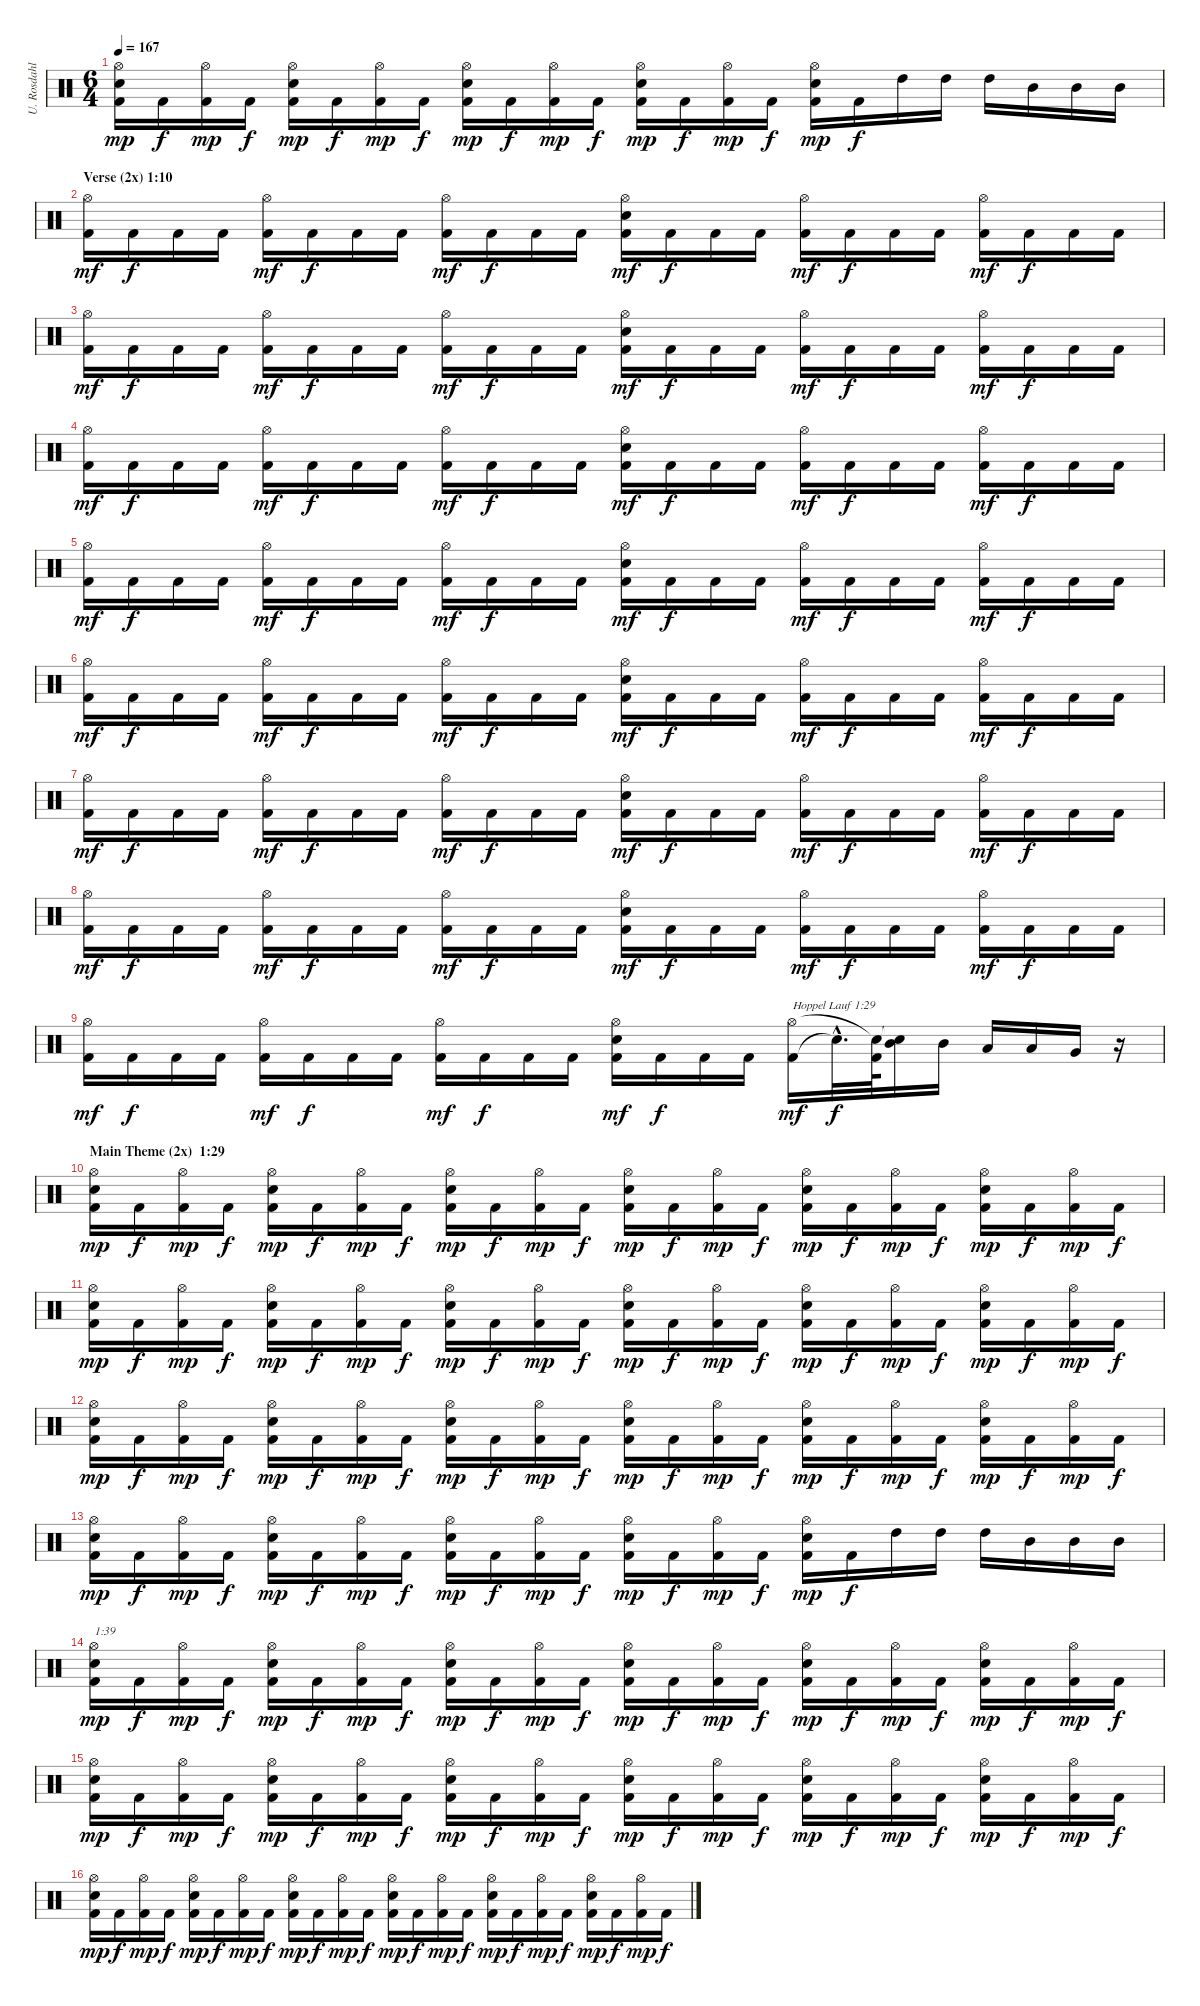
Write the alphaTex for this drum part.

\track ("U. Rosdahl" "U. Rosdahl") {instrument percussion}
\staff {score}
\articulation defaults
\ts (6 4)
\tempo 167
\clef neutral
\ks c
("Kick (hit) 2" "Electric Snare (hit)" "Hi-Hat (open)").16{dy mp} "Kick (hit) 2".16{dy f} ("Kick (hit) 2" "Hi-Hat (open)").16{dy mp} "Kick (hit) 2".16{dy f} ("Kick (hit) 2" "Electric Snare (hit)" "Hi-Hat (open)").16{dy mp} "Kick (hit) 2".16{dy f} ("Kick (hit) 2" "Hi-Hat (open)").16{dy mp} "Kick (hit) 2".16{dy f} ("Kick (hit) 2" "Electric Snare (hit)" "Hi-Hat (open)").16{dy mp} "Kick (hit) 2".16{dy f} ("Kick (hit) 2" "Hi-Hat (open)").16{dy mp} "Kick (hit) 2".16{dy f} ("Kick (hit) 2" "Electric Snare (hit)" "Hi-Hat (open)").16{dy mp} "Kick (hit) 2".16{dy f} ("Kick (hit) 2" "Hi-Hat (open)").16{dy mp} "Kick (hit) 2".16{dy f} ("Kick (hit) 2" "Electric Snare (hit)" "Hi-Hat (open)").16{dy mp} "Kick (hit) 2".16{dy f} "High Tom (hit)".16 "High Tom (hit)".16 "High Tom (hit)".16 "Mid Tom (hit)".16 "Mid Tom (hit)".16 "Mid Tom (hit)".16 |
\section ("" "Verse (2x) 1:10")
("Kick (hit) 2" "Hi-Hat (open)").16{dy mf} "Kick (hit) 2".16{dy f} "Kick (hit) 2".16 "Kick (hit) 2".16 ("Kick (hit) 2" "Hi-Hat (open)").16{dy mf} "Kick (hit) 2".16{dy f} "Kick (hit) 2".16 "Kick (hit) 2".16 ("Kick (hit) 2" "Hi-Hat (open)").16{dy mf} "Kick (hit) 2".16{dy f} "Kick (hit) 2".16 "Kick (hit) 2".16 ("Kick (hit) 2" "Electric Snare (hit)" "Hi-Hat (open)").16{dy mf} "Kick (hit) 2".16{dy f} "Kick (hit) 2".16 "Kick (hit) 2".16 ("Kick (hit) 2" "Hi-Hat (open)").16{dy mf} "Kick (hit) 2".16{dy f} "Kick (hit) 2".16 "Kick (hit) 2".16 ("Kick (hit) 2" "Hi-Hat (open)").16{dy mf} "Kick (hit) 2".16{dy f} "Kick (hit) 2".16 "Kick (hit) 2".16 |
("Kick (hit) 2" "Hi-Hat (open)").16{dy mf} "Kick (hit) 2".16{dy f} "Kick (hit) 2".16 "Kick (hit) 2".16 ("Kick (hit) 2" "Hi-Hat (open)").16{dy mf} "Kick (hit) 2".16{dy f} "Kick (hit) 2".16 "Kick (hit) 2".16 ("Kick (hit) 2" "Hi-Hat (open)").16{dy mf} "Kick (hit) 2".16{dy f} "Kick (hit) 2".16 "Kick (hit) 2".16 ("Kick (hit) 2" "Electric Snare (hit)" "Hi-Hat (open)").16{dy mf} "Kick (hit) 2".16{dy f} "Kick (hit) 2".16 "Kick (hit) 2".16 ("Kick (hit) 2" "Hi-Hat (open)").16{dy mf} "Kick (hit) 2".16{dy f} "Kick (hit) 2".16 "Kick (hit) 2".16 ("Kick (hit) 2" "Hi-Hat (open)").16{dy mf} "Kick (hit) 2".16{dy f} "Kick (hit) 2".16 "Kick (hit) 2".16 |
("Kick (hit) 2" "Hi-Hat (open)").16{dy mf} "Kick (hit) 2".16{dy f} "Kick (hit) 2".16 "Kick (hit) 2".16 ("Kick (hit) 2" "Hi-Hat (open)").16{dy mf} "Kick (hit) 2".16{dy f} "Kick (hit) 2".16 "Kick (hit) 2".16 ("Kick (hit) 2" "Hi-Hat (open)").16{dy mf} "Kick (hit) 2".16{dy f} "Kick (hit) 2".16 "Kick (hit) 2".16 ("Kick (hit) 2" "Electric Snare (hit)" "Hi-Hat (open)").16{dy mf} "Kick (hit) 2".16{dy f} "Kick (hit) 2".16 "Kick (hit) 2".16 ("Kick (hit) 2" "Hi-Hat (open)").16{dy mf} "Kick (hit) 2".16{dy f} "Kick (hit) 2".16 "Kick (hit) 2".16 ("Kick (hit) 2" "Hi-Hat (open)").16{dy mf} "Kick (hit) 2".16{dy f} "Kick (hit) 2".16 "Kick (hit) 2".16 |
("Kick (hit) 2" "Hi-Hat (open)").16{dy mf} "Kick (hit) 2".16{dy f} "Kick (hit) 2".16 "Kick (hit) 2".16 ("Kick (hit) 2" "Hi-Hat (open)").16{dy mf} "Kick (hit) 2".16{dy f} "Kick (hit) 2".16 "Kick (hit) 2".16 ("Kick (hit) 2" "Hi-Hat (open)").16{dy mf} "Kick (hit) 2".16{dy f} "Kick (hit) 2".16 "Kick (hit) 2".16 ("Kick (hit) 2" "Electric Snare (hit)" "Hi-Hat (open)").16{dy mf} "Kick (hit) 2".16{dy f} "Kick (hit) 2".16 "Kick (hit) 2".16 ("Kick (hit) 2" "Hi-Hat (open)").16{dy mf} "Kick (hit) 2".16{dy f} "Kick (hit) 2".16 "Kick (hit) 2".16 ("Kick (hit) 2" "Hi-Hat (open)").16{dy mf} "Kick (hit) 2".16{dy f} "Kick (hit) 2".16 "Kick (hit) 2".16 |
("Kick (hit) 2" "Hi-Hat (open)").16{dy mf} "Kick (hit) 2".16{dy f} "Kick (hit) 2".16 "Kick (hit) 2".16 ("Kick (hit) 2" "Hi-Hat (open)").16{dy mf} "Kick (hit) 2".16{dy f} "Kick (hit) 2".16 "Kick (hit) 2".16 ("Kick (hit) 2" "Hi-Hat (open)").16{dy mf} "Kick (hit) 2".16{dy f} "Kick (hit) 2".16 "Kick (hit) 2".16 ("Kick (hit) 2" "Electric Snare (hit)" "Hi-Hat (open)").16{dy mf} "Kick (hit) 2".16{dy f} "Kick (hit) 2".16 "Kick (hit) 2".16 ("Kick (hit) 2" "Hi-Hat (open)").16{dy mf} "Kick (hit) 2".16{dy f} "Kick (hit) 2".16 "Kick (hit) 2".16 ("Kick (hit) 2" "Hi-Hat (open)").16{dy mf} "Kick (hit) 2".16{dy f} "Kick (hit) 2".16 "Kick (hit) 2".16 |
("Kick (hit) 2" "Hi-Hat (open)").16{dy mf} "Kick (hit) 2".16{dy f} "Kick (hit) 2".16 "Kick (hit) 2".16 ("Kick (hit) 2" "Hi-Hat (open)").16{dy mf} "Kick (hit) 2".16{dy f} "Kick (hit) 2".16 "Kick (hit) 2".16 ("Kick (hit) 2" "Hi-Hat (open)").16{dy mf} "Kick (hit) 2".16{dy f} "Kick (hit) 2".16 "Kick (hit) 2".16 ("Kick (hit) 2" "Electric Snare (hit)" "Hi-Hat (open)").16{dy mf} "Kick (hit) 2".16{dy f} "Kick (hit) 2".16 "Kick (hit) 2".16 ("Kick (hit) 2" "Hi-Hat (open)").16{dy mf} "Kick (hit) 2".16{dy f} "Kick (hit) 2".16 "Kick (hit) 2".16 ("Kick (hit) 2" "Hi-Hat (open)").16{dy mf} "Kick (hit) 2".16{dy f} "Kick (hit) 2".16 "Kick (hit) 2".16 |
("Kick (hit) 2" "Hi-Hat (open)").16{dy mf} "Kick (hit) 2".16{dy f} "Kick (hit) 2".16 "Kick (hit) 2".16 ("Kick (hit) 2" "Hi-Hat (open)").16{dy mf} "Kick (hit) 2".16{dy f} "Kick (hit) 2".16 "Kick (hit) 2".16 ("Kick (hit) 2" "Hi-Hat (open)").16{dy mf} "Kick (hit) 2".16{dy f} "Kick (hit) 2".16 "Kick (hit) 2".16 ("Kick (hit) 2" "Electric Snare (hit)" "Hi-Hat (open)").16{dy mf} "Kick (hit) 2".16{dy f} "Kick (hit) 2".16 "Kick (hit) 2".16 ("Kick (hit) 2" "Hi-Hat (open)").16{dy mf} "Kick (hit) 2".16{dy f} "Kick (hit) 2".16 "Kick (hit) 2".16 ("Kick (hit) 2" "Hi-Hat (open)").16{dy mf} "Kick (hit) 2".16{dy f} "Kick (hit) 2".16 "Kick (hit) 2".16 |
("Kick (hit) 2" "Hi-Hat (open)").16{dy mf} "Kick (hit) 2".16{dy f} "Kick (hit) 2".16 "Kick (hit) 2".16 ("Kick (hit) 2" "Hi-Hat (open)").16{dy mf} "Kick (hit) 2".16{dy f} "Kick (hit) 2".16 "Kick (hit) 2".16 ("Kick (hit) 2" "Hi-Hat (open)").16{dy mf} "Kick (hit) 2".16{dy f} "Kick (hit) 2".16 "Kick (hit) 2".16 ("Kick (hit) 2" "Electric Snare (hit)" "Hi-Hat (open)").16{dy mf} "Kick (hit) 2".16{dy f} "Kick (hit) 2".16 "Kick (hit) 2".16 ("Kick (hit) 2" "Hi-Hat (open)").16{txt "Hoppel Lauf 1:29" dy mf} "Snare (hit)"{hac t}.32{d dy f} ("Kick (hit) 2" "Snare (hit)"{t}).64 ("Mid Tom (hit)" "Snare (hit)"{t}).16 "Mid Tom (hit)".16 "Low Tom (hit)".16 "Low Tom (hit)".16 "Very Low Tom (hit)".16 r.16 |
\section ("" "Main Theme (2x)  1:29")
("Kick (hit) 2" "Electric Snare (hit)" "Hi-Hat (open)").16{dy mp} "Kick (hit) 2".16{dy f} ("Kick (hit) 2" "Hi-Hat (open)").16{dy mp} "Kick (hit) 2".16{dy f} ("Kick (hit) 2" "Electric Snare (hit)" "Hi-Hat (open)").16{dy mp} "Kick (hit) 2".16{dy f} ("Kick (hit) 2" "Hi-Hat (open)").16{dy mp} "Kick (hit) 2".16{dy f} ("Kick (hit) 2" "Electric Snare (hit)" "Hi-Hat (open)").16{dy mp} "Kick (hit) 2".16{dy f} ("Kick (hit) 2" "Hi-Hat (open)").16{dy mp} "Kick (hit) 2".16{dy f} ("Kick (hit) 2" "Electric Snare (hit)" "Hi-Hat (open)").16{dy mp} "Kick (hit) 2".16{dy f} ("Kick (hit) 2" "Hi-Hat (open)").16{dy mp} "Kick (hit) 2".16{dy f} ("Kick (hit) 2" "Electric Snare (hit)" "Hi-Hat (open)").16{dy mp} "Kick (hit) 2".16{dy f} ("Kick (hit) 2" "Hi-Hat (open)").16{dy mp} "Kick (hit) 2".16{dy f} ("Kick (hit) 2" "Electric Snare (hit)" "Hi-Hat (open)").16{dy mp} "Kick (hit) 2".16{dy f} ("Kick (hit) 2" "Hi-Hat (open)").16{dy mp} "Kick (hit) 2".16{dy f} |
("Kick (hit) 2" "Electric Snare (hit)" "Hi-Hat (open)").16{dy mp} "Kick (hit) 2".16{dy f} ("Kick (hit) 2" "Hi-Hat (open)").16{dy mp} "Kick (hit) 2".16{dy f} ("Kick (hit) 2" "Electric Snare (hit)" "Hi-Hat (open)").16{dy mp} "Kick (hit) 2".16{dy f} ("Kick (hit) 2" "Hi-Hat (open)").16{dy mp} "Kick (hit) 2".16{dy f} ("Kick (hit) 2" "Electric Snare (hit)" "Hi-Hat (open)").16{dy mp} "Kick (hit) 2".16{dy f} ("Kick (hit) 2" "Hi-Hat (open)").16{dy mp} "Kick (hit) 2".16{dy f} ("Kick (hit) 2" "Electric Snare (hit)" "Hi-Hat (open)").16{dy mp} "Kick (hit) 2".16{dy f} ("Kick (hit) 2" "Hi-Hat (open)").16{dy mp} "Kick (hit) 2".16{dy f} ("Kick (hit) 2" "Electric Snare (hit)" "Hi-Hat (open)").16{dy mp} "Kick (hit) 2".16{dy f} ("Kick (hit) 2" "Hi-Hat (open)").16{dy mp} "Kick (hit) 2".16{dy f} ("Kick (hit) 2" "Electric Snare (hit)" "Hi-Hat (open)").16{dy mp} "Kick (hit) 2".16{dy f} ("Kick (hit) 2" "Hi-Hat (open)").16{dy mp} "Kick (hit) 2".16{dy f} |
("Kick (hit) 2" "Electric Snare (hit)" "Hi-Hat (open)").16{dy mp} "Kick (hit) 2".16{dy f} ("Kick (hit) 2" "Hi-Hat (open)").16{dy mp} "Kick (hit) 2".16{dy f} ("Kick (hit) 2" "Electric Snare (hit)" "Hi-Hat (open)").16{dy mp} "Kick (hit) 2".16{dy f} ("Kick (hit) 2" "Hi-Hat (open)").16{dy mp} "Kick (hit) 2".16{dy f} ("Kick (hit) 2" "Electric Snare (hit)" "Hi-Hat (open)").16{dy mp} "Kick (hit) 2".16{dy f} ("Kick (hit) 2" "Hi-Hat (open)").16{dy mp} "Kick (hit) 2".16{dy f} ("Kick (hit) 2" "Electric Snare (hit)" "Hi-Hat (open)").16{dy mp} "Kick (hit) 2".16{dy f} ("Kick (hit) 2" "Hi-Hat (open)").16{dy mp} "Kick (hit) 2".16{dy f} ("Kick (hit) 2" "Electric Snare (hit)" "Hi-Hat (open)").16{dy mp} "Kick (hit) 2".16{dy f} ("Kick (hit) 2" "Hi-Hat (open)").16{dy mp} "Kick (hit) 2".16{dy f} ("Kick (hit) 2" "Electric Snare (hit)" "Hi-Hat (open)").16{dy mp} "Kick (hit) 2".16{dy f} ("Kick (hit) 2" "Hi-Hat (open)").16{dy mp} "Kick (hit) 2".16{dy f} |
("Kick (hit) 2" "Electric Snare (hit)" "Hi-Hat (open)").16{dy mp} "Kick (hit) 2".16{dy f} ("Kick (hit) 2" "Hi-Hat (open)").16{dy mp} "Kick (hit) 2".16{dy f} ("Kick (hit) 2" "Electric Snare (hit)" "Hi-Hat (open)").16{dy mp} "Kick (hit) 2".16{dy f} ("Kick (hit) 2" "Hi-Hat (open)").16{dy mp} "Kick (hit) 2".16{dy f} ("Kick (hit) 2" "Electric Snare (hit)" "Hi-Hat (open)").16{dy mp} "Kick (hit) 2".16{dy f} ("Kick (hit) 2" "Hi-Hat (open)").16{dy mp} "Kick (hit) 2".16{dy f} ("Kick (hit) 2" "Electric Snare (hit)" "Hi-Hat (open)").16{dy mp} "Kick (hit) 2".16{dy f} ("Kick (hit) 2" "Hi-Hat (open)").16{dy mp} "Kick (hit) 2".16{dy f} ("Kick (hit) 2" "Electric Snare (hit)" "Hi-Hat (open)").16{dy mp} "Kick (hit) 2".16{dy f} "High Tom (hit)".16 "High Tom (hit)".16 "High Tom (hit)".16 "Mid Tom (hit)".16 "Mid Tom (hit)".16 "Mid Tom (hit)".16 |
("Kick (hit) 2" "Electric Snare (hit)" "Hi-Hat (open)").16{txt "1:39" dy mp} "Kick (hit) 2".16{dy f} ("Kick (hit) 2" "Hi-Hat (open)").16{dy mp} "Kick (hit) 2".16{dy f} ("Kick (hit) 2" "Electric Snare (hit)" "Hi-Hat (open)").16{dy mp} "Kick (hit) 2".16{dy f} ("Kick (hit) 2" "Hi-Hat (open)").16{dy mp} "Kick (hit) 2".16{dy f} ("Kick (hit) 2" "Electric Snare (hit)" "Hi-Hat (open)").16{dy mp} "Kick (hit) 2".16{dy f} ("Kick (hit) 2" "Hi-Hat (open)").16{dy mp} "Kick (hit) 2".16{dy f} ("Kick (hit) 2" "Electric Snare (hit)" "Hi-Hat (open)").16{dy mp} "Kick (hit) 2".16{dy f} ("Kick (hit) 2" "Hi-Hat (open)").16{dy mp} "Kick (hit) 2".16{dy f} ("Kick (hit) 2" "Electric Snare (hit)" "Hi-Hat (open)").16{dy mp} "Kick (hit) 2".16{dy f} ("Kick (hit) 2" "Hi-Hat (open)").16{dy mp} "Kick (hit) 2".16{dy f} ("Kick (hit) 2" "Electric Snare (hit)" "Hi-Hat (open)").16{dy mp} "Kick (hit) 2".16{dy f} ("Kick (hit) 2" "Hi-Hat (open)").16{dy mp} "Kick (hit) 2".16{dy f} |
("Kick (hit) 2" "Electric Snare (hit)" "Hi-Hat (open)").16{dy mp} "Kick (hit) 2".16{dy f} ("Kick (hit) 2" "Hi-Hat (open)").16{dy mp} "Kick (hit) 2".16{dy f} ("Kick (hit) 2" "Electric Snare (hit)" "Hi-Hat (open)").16{dy mp} "Kick (hit) 2".16{dy f} ("Kick (hit) 2" "Hi-Hat (open)").16{dy mp} "Kick (hit) 2".16{dy f} ("Kick (hit) 2" "Electric Snare (hit)" "Hi-Hat (open)").16{dy mp} "Kick (hit) 2".16{dy f} ("Kick (hit) 2" "Hi-Hat (open)").16{dy mp} "Kick (hit) 2".16{dy f} ("Kick (hit) 2" "Electric Snare (hit)" "Hi-Hat (open)").16{dy mp} "Kick (hit) 2".16{dy f} ("Kick (hit) 2" "Hi-Hat (open)").16{dy mp} "Kick (hit) 2".16{dy f} ("Kick (hit) 2" "Electric Snare (hit)" "Hi-Hat (open)").16{dy mp} "Kick (hit) 2".16{dy f} ("Kick (hit) 2" "Hi-Hat (open)").16{dy mp} "Kick (hit) 2".16{dy f} ("Kick (hit) 2" "Electric Snare (hit)" "Hi-Hat (open)").16{dy mp} "Kick (hit) 2".16{dy f} ("Kick (hit) 2" "Hi-Hat (open)").16{dy mp} "Kick (hit) 2".16{dy f} |
("Kick (hit) 2" "Electric Snare (hit)" "Hi-Hat (open)").16{dy mp} "Kick (hit) 2".16{dy f} ("Kick (hit) 2" "Hi-Hat (open)").16{dy mp} "Kick (hit) 2".16{dy f} ("Kick (hit) 2" "Electric Snare (hit)" "Hi-Hat (open)").16{dy mp} "Kick (hit) 2".16{dy f} ("Kick (hit) 2" "Hi-Hat (open)").16{dy mp} "Kick (hit) 2".16{dy f} ("Kick (hit) 2" "Electric Snare (hit)" "Hi-Hat (open)").16{dy mp} "Kick (hit) 2".16{dy f} ("Kick (hit) 2" "Hi-Hat (open)").16{dy mp} "Kick (hit) 2".16{dy f} ("Kick (hit) 2" "Electric Snare (hit)" "Hi-Hat (open)").16{dy mp} "Kick (hit) 2".16{dy f} ("Kick (hit) 2" "Hi-Hat (open)").16{dy mp} "Kick (hit) 2".16{dy f} ("Kick (hit) 2" "Electric Snare (hit)" "Hi-Hat (open)").16{dy mp} "Kick (hit) 2".16{dy f} ("Kick (hit) 2" "Hi-Hat (open)").16{dy mp} "Kick (hit) 2".16{dy f} ("Kick (hit) 2" "Electric Snare (hit)" "Hi-Hat (open)").16{dy mp} "Kick (hit) 2".16{dy f} ("Kick (hit) 2" "Hi-Hat (open)").16{dy mp} "Kick (hit) 2".16{dy f}
